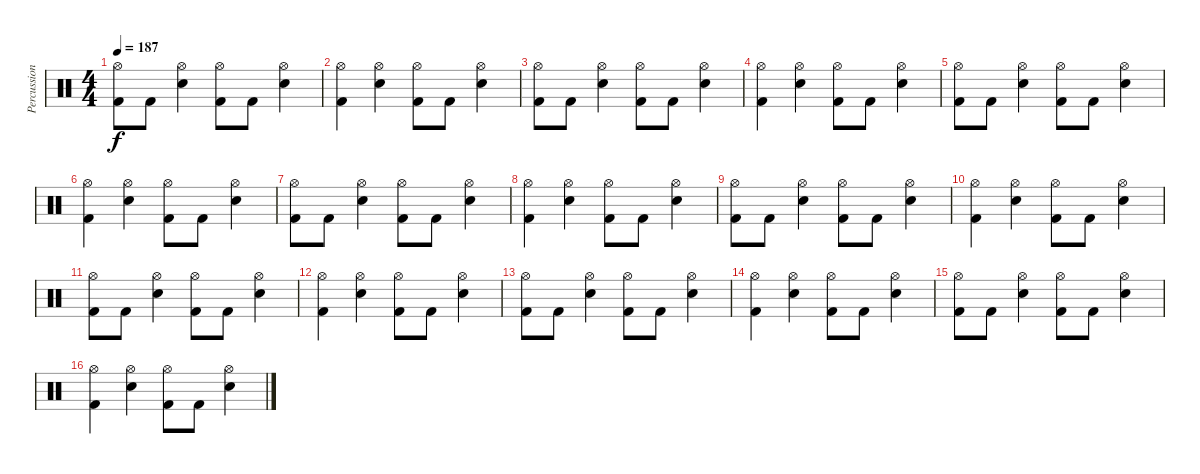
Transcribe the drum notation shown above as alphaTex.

\track ("Percussion" "Percussion") {instrument percussion}
\staff {score}
\articulation defaults
\ts (4 4)
\tempo 187
\clef neutral
\ks c
("Hi-Hat (open)" "Kick (hit) 2").8{dy f} "Kick (hit) 2".8 ("Hi-Hat (open)" "Snare (hit) 2").4 ("Hi-Hat (open)" "Kick (hit) 2").8 "Kick (hit) 2".8 ("Hi-Hat (open)" "Snare (hit) 2").4 |
("Hi-Hat (open)" "Kick (hit) 2").4 ("Hi-Hat (open)" "Snare (hit) 2").4 ("Hi-Hat (open)" "Kick (hit) 2").8 "Kick (hit) 2".8 ("Hi-Hat (open)" "Snare (hit) 2").4 |
("Hi-Hat (open)" "Kick (hit) 2").8 "Kick (hit) 2".8 ("Hi-Hat (open)" "Snare (hit) 2").4 ("Hi-Hat (open)" "Kick (hit) 2").8 "Kick (hit) 2".8 ("Hi-Hat (open)" "Snare (hit) 2").4 |
("Hi-Hat (open)" "Kick (hit) 2").4 ("Hi-Hat (open)" "Snare (hit) 2").4 ("Hi-Hat (open)" "Kick (hit) 2").8 "Kick (hit) 2".8 ("Hi-Hat (open)" "Snare (hit) 2").4 |
("Hi-Hat (open)" "Kick (hit) 2").8 "Kick (hit) 2".8 ("Hi-Hat (open)" "Snare (hit) 2").4 ("Hi-Hat (open)" "Kick (hit) 2").8 "Kick (hit) 2".8 ("Hi-Hat (open)" "Snare (hit) 2").4 |
("Hi-Hat (open)" "Kick (hit) 2").4 ("Hi-Hat (open)" "Snare (hit) 2").4 ("Hi-Hat (open)" "Kick (hit) 2").8 "Kick (hit) 2".8 ("Hi-Hat (open)" "Snare (hit) 2").4 |
("Hi-Hat (open)" "Kick (hit) 2").8 "Kick (hit) 2".8 ("Hi-Hat (open)" "Snare (hit) 2").4 ("Hi-Hat (open)" "Kick (hit) 2").8 "Kick (hit) 2".8 ("Hi-Hat (open)" "Snare (hit) 2").4 |
("Hi-Hat (open)" "Kick (hit) 2").4 ("Hi-Hat (open)" "Snare (hit) 2").4 ("Hi-Hat (open)" "Kick (hit) 2").8 "Kick (hit) 2".8 ("Hi-Hat (open)" "Snare (hit) 2").4 |
("Hi-Hat (open)" "Kick (hit) 2").8 "Kick (hit) 2".8 ("Hi-Hat (open)" "Snare (hit) 2").4 ("Hi-Hat (open)" "Kick (hit) 2").8 "Kick (hit) 2".8 ("Hi-Hat (open)" "Snare (hit) 2").4 |
("Hi-Hat (open)" "Kick (hit) 2").4 ("Hi-Hat (open)" "Snare (hit) 2").4 ("Hi-Hat (open)" "Kick (hit) 2").8 "Kick (hit) 2".8 ("Hi-Hat (open)" "Snare (hit) 2").4 |
("Hi-Hat (open)" "Kick (hit) 2").8 "Kick (hit) 2".8 ("Hi-Hat (open)" "Snare (hit) 2").4 ("Hi-Hat (open)" "Kick (hit) 2").8 "Kick (hit) 2".8 ("Hi-Hat (open)" "Snare (hit) 2").4 |
("Hi-Hat (open)" "Kick (hit) 2").4 ("Hi-Hat (open)" "Snare (hit) 2").4 ("Hi-Hat (open)" "Kick (hit) 2").8 "Kick (hit) 2".8 ("Hi-Hat (open)" "Snare (hit) 2").4 |
("Hi-Hat (open)" "Kick (hit) 2").8 "Kick (hit) 2".8 ("Hi-Hat (open)" "Snare (hit) 2").4 ("Hi-Hat (open)" "Kick (hit) 2").8 "Kick (hit) 2".8 ("Hi-Hat (open)" "Snare (hit) 2").4 |
("Hi-Hat (open)" "Kick (hit) 2").4 ("Hi-Hat (open)" "Snare (hit) 2").4 ("Hi-Hat (open)" "Kick (hit) 2").8 "Kick (hit) 2".8 ("Hi-Hat (open)" "Snare (hit) 2").4 |
("Hi-Hat (open)" "Kick (hit) 2").8 "Kick (hit) 2".8 ("Hi-Hat (open)" "Snare (hit) 2").4 ("Hi-Hat (open)" "Kick (hit) 2").8 "Kick (hit) 2".8 ("Hi-Hat (open)" "Snare (hit) 2").4 |
("Hi-Hat (open)" "Kick (hit) 2").4 ("Hi-Hat (open)" "Snare (hit) 2").4 ("Hi-Hat (open)" "Kick (hit) 2").8 "Kick (hit) 2".8 ("Hi-Hat (open)" "Snare (hit) 2").4
